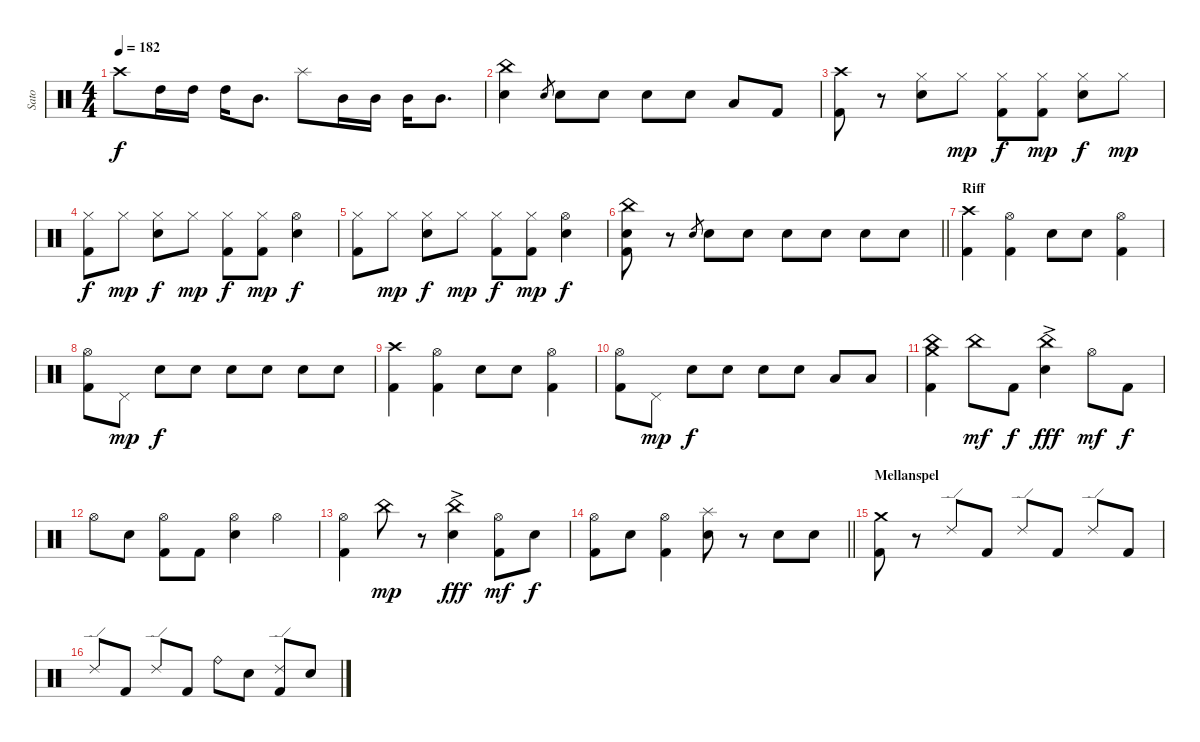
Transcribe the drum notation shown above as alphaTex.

\track ("Sato" "Sato") {instrument percussion}
\staff {score}
\articulation defaults
\ts (4 4)
\tempo 182
\clef neutral
\ks c "Crash high (hit)".8{dy f} "High Tom (hit)".16 "High Tom (hit)".16 "High Tom (hit)".16 "Mid Tom (hit)".8{d} "Splash (hit)".8 "Mid Tom (hit)".16 "Mid Tom (hit)".16 "Mid Tom (hit)".16 "Mid Tom (hit)".8{d}
|
("China (hit)" "Electric Snare (hit)").4 "Electric Snare (hit)".8{gr} "Electric Snare (hit)".8 "Electric Snare (hit)".8 "Electric Snare (hit)".8 "Electric Snare (hit)".8 "Low Floor Tom (hit)".8 "Kick (hit) 2".8 |
("Crash high (hit)" "Kick (hit) 2").8 r.8 ("Hi-Hat (closed)" "Electric Snare (hit)").8 "Hi-Hat (closed)".8{dy mp} ("Hi-Hat (closed)" "Kick (hit) 2").8{dy f} ("Hi-Hat (closed)" "Kick (hit) 2").8{dy mp} ("Hi-Hat (closed)" "Electric Snare (hit)").8{dy f} "Hi-Hat (closed)".8{dy mp} |
("Hi-Hat (closed)" "Kick (hit) 2").8{dy f} "Hi-Hat (closed)".8{dy mp} ("Hi-Hat (closed)" "Electric Snare (hit)").8{dy f} "Hi-Hat (closed)".8{dy mp} ("Hi-Hat (closed)" "Kick (hit) 2").8{dy f} ("Hi-Hat (closed)" "Kick (hit) 2").8{dy mp} ("Hi-Hat (open)" "Electric Snare (hit)").4{dy f} |
("Hi-Hat (closed)" "Kick (hit) 2").8 "Hi-Hat (closed)".8{dy mp} ("Hi-Hat (closed)" "Electric Snare (hit)").8{dy f} "Hi-Hat (closed)".8{dy mp} ("Hi-Hat (closed)" "Kick (hit) 2").8{dy f} ("Hi-Hat (closed)" "Kick (hit) 2").8{dy mp} ("Hi-Hat (open)" "Electric Snare (hit)").4{dy f} |
\barLineRight lightlight
("China (hit)" "Electric Snare (hit)" "Kick (hit) 2").8 r.8 "Electric Snare (hit)".8{gr} "Electric Snare (hit)".8 "Electric Snare (hit)".8 "Electric Snare (hit)".8 "Electric Snare (hit)".8 "Electric Snare (hit)".8 "Electric Snare (hit)".8 |
\section ("" "Riff")
("Crash high (hit)" "Kick (hit) 2").4 ("Hi-Hat (open)" "Kick (hit) 2").4 "Electric Snare (hit)".8 "Electric Snare (hit)".8 ("Hi-Hat (open)" "Kick (hit) 2").4 |
("Hi-Hat (open)" "Kick (hit) 2").8 "Pedal Hi-Hat (hit)".8{dy mp} "Electric Snare (hit)".8{dy f} "Electric Snare (hit)".8 "Electric Snare (hit)".8 "Electric Snare (hit)".8 "Electric Snare (hit)".8 "Electric Snare (hit)".8 |
("Crash high (hit)" "Kick (hit) 2").4 ("Hi-Hat (open)" "Kick (hit) 2").4 "Electric Snare (hit)".8 "Electric Snare (hit)".8 ("Hi-Hat (open)" "Kick (hit) 2").4 |
("Hi-Hat (open)" "Kick (hit) 2").8 "Pedal Hi-Hat (hit)".8{dy mp} "Electric Snare (hit)".8{dy f} "Electric Snare (hit)".8 "Electric Snare (hit)".8 "Electric Snare (hit)".8 "Low Floor Tom (hit)".8 "Low Floor Tom (hit)".8 |
("China (hit)" "Crash medium (hit)" "Kick (hit) 2").4 "China (hit)".8{dy mf} "Kick (hit) 2".8{dy f} ("China (hit)" "Electric Snare (hit)"{ac}).4{dy fff} "Hi-Hat (open)".8{dy mf} "Kick (hit) 2".8{dy f} |
"Hi-Hat (open)".8 "Electric Snare (hit)".8 ("Hi-Hat (open)" "Kick (hit) 2").8 "Kick (hit) 2".8 ("Hi-Hat (open)" "Electric Snare (hit)").4 "Hi-Hat (open)".4 |
("Hi-Hat (open)" "Kick (hit) 2").4 "China (hit)".8{dy mp} r.8 ("China (hit)" "Electric Snare (hit)"{ac}).4{dy fff} ("Hi-Hat (open)" "Kick (hit) 2").8{dy mf} "Electric Snare (hit)".8{dy f} |
\barLineRight lightlight
("Hi-Hat (open)" "Kick (hit) 2").8 "Electric Snare (hit)".8 ("Hi-Hat (open)" "Kick (hit) 2").4 ("Splash (hit)" "Electric Snare (hit)").8 r.8 "Electric Snare (hit)".8 "Electric Snare (hit)".8 |
\section ("" "Mellanspel")
("Crash medium (hit)" "Kick (hit) 2").8 r.8 "Ride (edge) 2".8 "Kick (hit) 2".8 "Ride (edge) 2".8 "Kick (hit) 2".8 "Ride (edge) 2".8 "Kick (hit) 2".8 |
"Ride (edge) 2".8 "Kick (hit) 2".8 "Ride (edge) 2".8 "Kick (hit) 2".8 "Ride (bell)".8 "Electric Snare (hit)".8 ("Ride (edge) 2" "Kick (hit) 2").8 "Electric Snare (hit)".8
